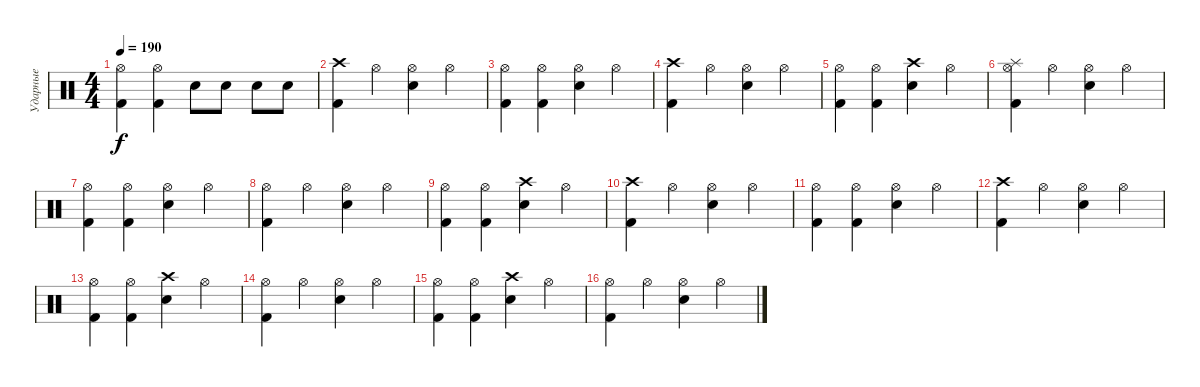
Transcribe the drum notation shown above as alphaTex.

\track ("Ударные" "Ударные") {instrument percussion}
\staff {score}
\articulation defaults
\ts (4 4)
\tempo 190
\clef neutral
\ks c
("Hi-Hat (open)" "Kick (hit) 2").4{dy f} ("Hi-Hat (open)" "Kick (hit) 2").4 "Electric Snare (hit)".8 "Electric Snare (hit)".8 "Electric Snare (hit)".8 "Electric Snare (hit)".8 |
("Crash high (hit)" "Kick (hit) 2").4 "Hi-Hat (open)".4 ("Hi-Hat (open)" "Electric Snare (hit)").4 "Hi-Hat (open)".4 |
("Hi-Hat (open)" "Kick (hit) 2").4 ("Hi-Hat (open)" "Kick (hit) 2").4 ("Hi-Hat (open)" "Electric Snare (hit)").4 "Hi-Hat (open)".4 |
("Crash high (hit)" "Kick (hit) 2").4 "Hi-Hat (open)".4 ("Hi-Hat (open)" "Electric Snare (hit)").4 "Hi-Hat (open)".4 |
("Hi-Hat (open)" "Kick (hit) 2").4 ("Hi-Hat (open)" "Kick (hit) 2").4 ("Crash high (hit)" "Electric Snare (hit)").4 "Hi-Hat (open)".4 |
("Splash (hit)" "Hi-Hat (open)" "Kick (hit) 2").4 "Hi-Hat (open)".4 ("Hi-Hat (open)" "Electric Snare (hit)").4 "Hi-Hat (open)".4 |
("Hi-Hat (open)" "Kick (hit) 2").4 ("Hi-Hat (open)" "Kick (hit) 2").4 ("Hi-Hat (open)" "Electric Snare (hit)").4 "Hi-Hat (open)".4 |
("Hi-Hat (open)" "Kick (hit) 2").4 "Hi-Hat (open)".4 ("Hi-Hat (open)" "Electric Snare (hit)").4 "Hi-Hat (open)".4 |
("Hi-Hat (open)" "Kick (hit) 2").4 ("Hi-Hat (open)" "Kick (hit) 2").4 ("Crash high (hit)" "Electric Snare (hit)").4 "Hi-Hat (open)".4 |
("Crash high (hit)" "Kick (hit) 2").4 "Hi-Hat (open)".4 ("Hi-Hat (open)" "Electric Snare (hit)").4 "Hi-Hat (open)".4 |
("Hi-Hat (open)" "Kick (hit) 2").4 ("Hi-Hat (open)" "Kick (hit) 2").4 ("Hi-Hat (open)" "Electric Snare (hit)").4 "Hi-Hat (open)".4 |
("Crash high (hit)" "Kick (hit) 2").4 "Hi-Hat (open)".4 ("Hi-Hat (open)" "Electric Snare (hit)").4 "Hi-Hat (open)".4 |
("Hi-Hat (open)" "Kick (hit) 2").4 ("Hi-Hat (open)" "Kick (hit) 2").4 ("Crash high (hit)" "Electric Snare (hit)").4 "Hi-Hat (open)".4 |
("Hi-Hat (open)" "Kick (hit) 2").4 "Hi-Hat (open)".4 ("Hi-Hat (open)" "Electric Snare (hit)").4 "Hi-Hat (open)".4 |
("Hi-Hat (open)" "Kick (hit) 2").4 ("Hi-Hat (open)" "Kick (hit) 2").4 ("Crash high (hit)" "Electric Snare (hit)").4 "Hi-Hat (open)".4 |
("Hi-Hat (open)" "Kick (hit) 2").4 "Hi-Hat (open)".4 ("Hi-Hat (open)" "Electric Snare (hit)").4 "Hi-Hat (open)".4
